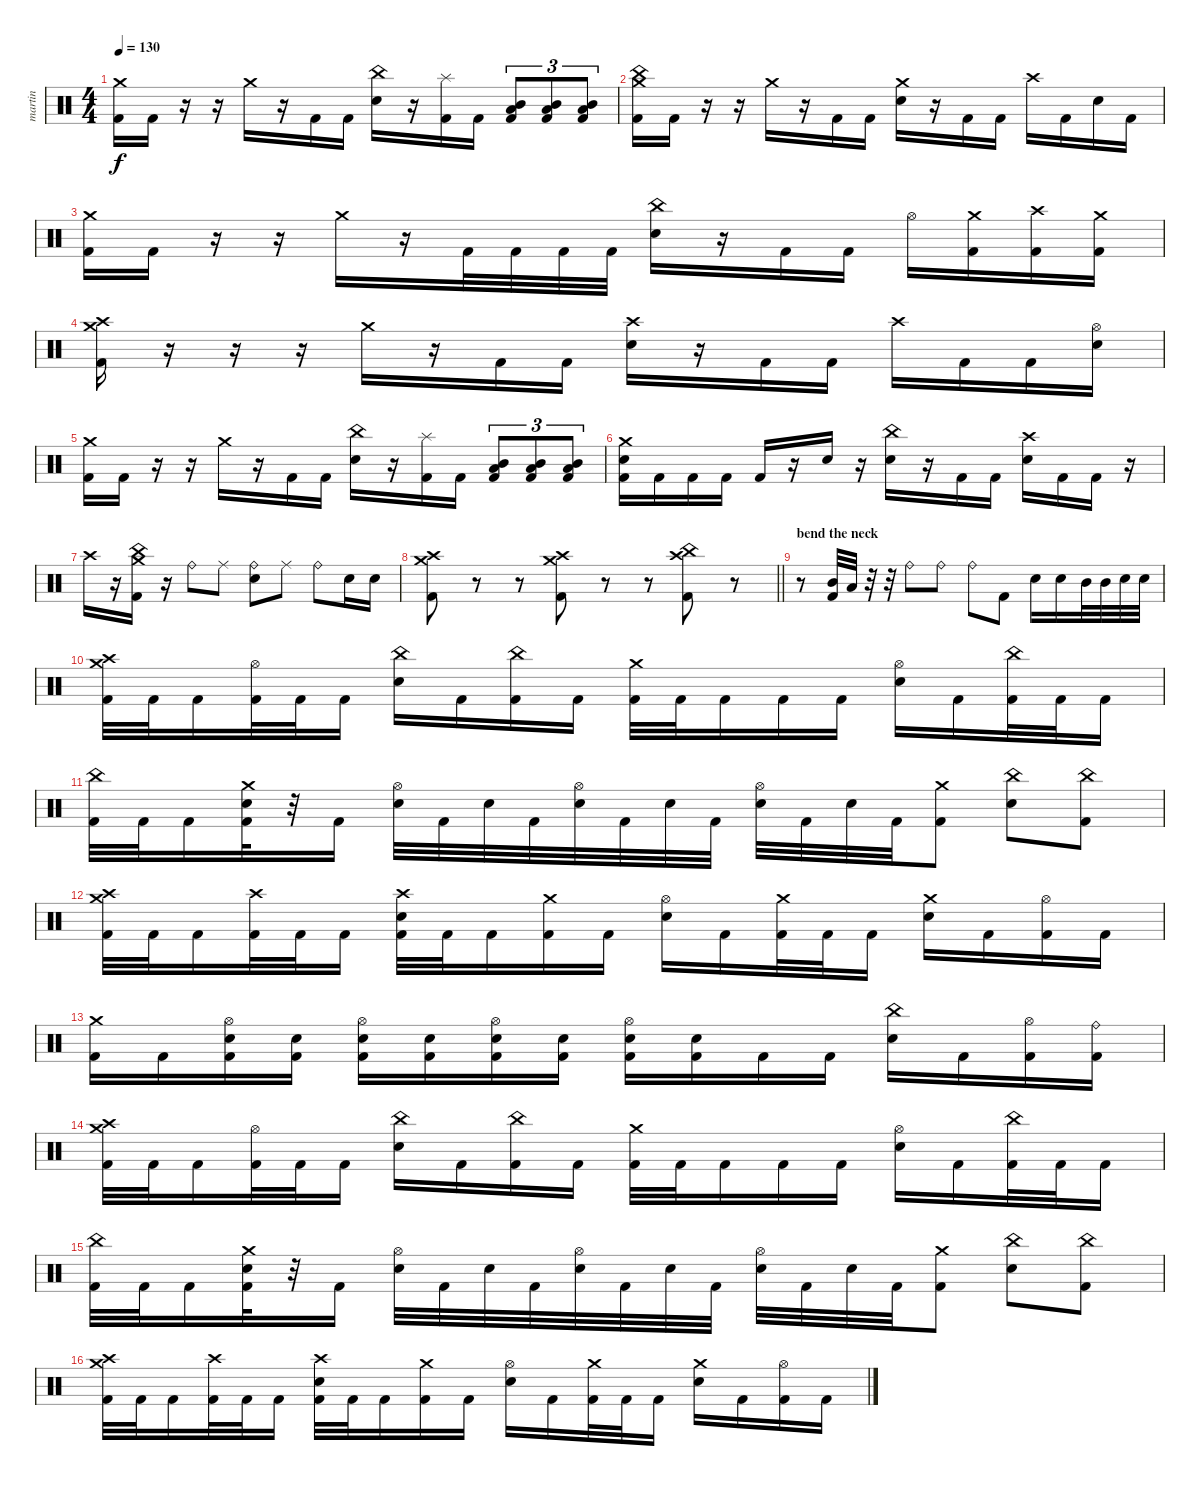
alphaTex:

\track ("martin" "martin") {instrument percussion}
\staff {score}
\articulation defaults
\ts (4 4)
\tempo 130
\clef neutral
\ks c
("Crash medium (hit)" "Kick (hit) 2").16{dy f} "Kick (hit) 2".16 r.16 r.16 "Crash medium (hit)".16 r.16 "Kick (hit) 2".16 "Kick (hit) 2".16 ("China (hit)" "Electric Snare (hit)").16 r.16 ("Splash (hit)" "Kick (hit) 2").16 "Kick (hit) 2".16 ("Low Floor Tom (hit)" "Mid Tom (hit)" "Kick (hit) 2").8{tu (3 2)} ("Low Floor Tom (hit)" "Mid Tom (hit)" "Kick (hit) 2").8{tu (3 2)} ("Low Floor Tom (hit)" "Mid Tom (hit)" "Kick (hit) 2").8{tu (3 2)} |
("Crash medium (hit)" "China (hit)" "Kick (hit) 2").16 "Kick (hit) 2".16 r.16 r.16 "Crash medium (hit)".16 r.16 "Kick (hit) 2".16 "Kick (hit) 2".16 ("Crash medium (hit)" "Electric Snare (hit)").16 r.16 "Kick (hit) 2".16 "Kick (hit) 2".16 "Crash high (hit)".16 "Kick (hit) 2".16 "Electric Snare (hit)".16 "Kick (hit) 2".16 |
("Crash medium (hit)" "Kick (hit) 2").16 "Kick (hit) 2".16 r.16 r.16 "Crash medium (hit)".16 r.16 "Kick (hit) 2".32 "Kick (hit) 2".32 "Kick (hit) 2".32 "Kick (hit) 2".32 ("China (hit)" "Electric Snare (hit)").16 r.16 "Kick (hit) 2".16 "Kick (hit) 2".16 "Hi-Hat (open)".16 ("Crash medium (hit)" "Kick (hit) 2").16 ("Crash high (hit)" "Kick (hit) 2").16 ("Crash medium (hit)" "Kick (hit) 2").16 |
("Crash medium (hit)" "Crash high (hit)" "Kick (hit) 2").16 r.16 r.16 r.16 "Crash medium (hit)".16 r.16 "Kick (hit) 2".16 "Kick (hit) 2".16 ("Crash high (hit)" "Electric Snare (hit)").16 r.16 "Kick (hit) 2".16 "Kick (hit) 2".16 "Crash high (hit)".16 "Kick (hit) 2".16 "Kick (hit) 2".16 ("Hi-Hat (open)" "Electric Snare (hit)").16 |
("Crash medium (hit)" "Kick (hit) 2").16 "Kick (hit) 2".16 r.16 r.16 "Crash medium (hit)".16 r.16 "Kick (hit) 2".16 "Kick (hit) 2".16 ("China (hit)" "Electric Snare (hit)").16 r.16 ("Splash (hit)" "Kick (hit) 2").16 "Kick (hit) 2".16 ("Low Floor Tom (hit)" "Mid Tom (hit)" "Kick (hit) 2").8{tu (3 2)} ("Low Floor Tom (hit)" "Mid Tom (hit)" "Kick (hit) 2").8{tu (3 2)} ("Low Floor Tom (hit)" "Mid Tom (hit)" "Kick (hit) 2").8{tu (3 2)} |
("Crash medium (hit)" "Electric Snare (hit)" "Kick (hit) 2").16 "Kick (hit) 2".16 "Kick (hit) 2".16 "Kick (hit) 2".16 "Kick (hit) 2".16 r.16 "Electric Snare (hit)".16 r.16 ("China (hit)" "Electric Snare (hit)").16 r.16 "Kick (hit) 2".16 "Kick (hit) 2".16 ("Crash high (hit)" "Electric Snare (hit)").16 "Kick (hit) 2".16 "Kick (hit) 2".16 r.16 |
"Crash high (hit)".16 r.16 ("China (hit)" "Crash medium (hit)" "Kick (hit) 2").16 r.16 "Ride (bell)".8 "Ride (middle)".8 ("Ride (bell)" "Electric Snare (hit)").8 "Ride (middle)".8 "Ride (bell)".8 "Electric Snare (hit)".16 "Electric Snare (hit)".16 |
\barLineRight lightlight
("Crash medium (hit)" "Crash high (hit)" "Kick (hit) 2").8 r.8 r.8 ("Crash medium (hit)" "Crash high (hit)" "Kick (hit) 2").8 r.8 r.8 ("Crash high (hit)" "China (hit)" "Kick (hit) 2").8 r.8 |
\section ("" "bend the neck")
r.8 ("Mid Tom (hit)" "Kick (hit) 2").32 "Low Tom (hit)".32 r.32 r.32 "Ride (bell)".8 "Ride (bell)".8 "Ride (bell)".8 "Kick (hit) 2".8 "Electric Snare (hit)".16 "Electric Snare (hit)".16 "Mid Tom (hit)".32 "Mid Tom (hit)".32 "Electric Snare (hit)".32 "Electric Snare (hit)".32 |
("Crash medium (hit)" "Crash high (hit)" "Kick (hit) 2").32 "Kick (hit) 2".32 "Kick (hit) 2".16 ("Hi-Hat (open)" "Kick (hit) 2").32 "Kick (hit) 2".32 "Kick (hit) 2".16 ("China (hit)" "Electric Snare (hit)").16 "Kick (hit) 2".16 ("China (hit)" "Kick (hit) 2").16 "Kick (hit) 2".16 ("Crash medium (hit)" "Kick (hit) 2").32 "Kick (hit) 2".32 "Kick (hit) 2".16 "Kick (hit) 2".16 "Kick (hit) 2".16 ("Hi-Hat (open)" "Electric Snare (hit)").16 "Kick (hit) 2".16 ("China (hit)" "Kick (hit) 2").32 "Kick (hit) 2".32 "Kick (hit) 2".16 |
("China (hit)" "Kick (hit) 2").32 "Kick (hit) 2".32 "Kick (hit) 2".16 ("Crash medium (hit)" "Electric Snare (hit)" "Kick (hit) 2").32 r.32 "Kick (hit) 2".16 ("Hi-Hat (open)" "Electric Snare (hit)").32 "Kick (hit) 2".32 "Electric Snare (hit)".32 "Kick (hit) 2".32 ("Hi-Hat (open)" "Electric Snare (hit)").32 "Kick (hit) 2".32 "Electric Snare (hit)".32 "Kick (hit) 2".32 ("Hi-Hat (open)" "Electric Snare (hit)").32 "Kick (hit) 2".32 "Electric Snare (hit)".32 "Kick (hit) 2".32 ("Crash medium (hit)" "Kick (hit) 2").8 ("China (hit)" "Electric Snare (hit)").8 ("China (hit)" "Kick (hit) 2").8 |
("Crash medium (hit)" "Crash high (hit)" "Kick (hit) 2").32 "Kick (hit) 2".32 "Kick (hit) 2".16 ("Crash high (hit)" "Kick (hit) 2").32 "Kick (hit) 2".32 "Kick (hit) 2".16 ("Crash high (hit)" "Electric Snare (hit)" "Kick (hit) 2").32 "Kick (hit) 2".32 "Kick (hit) 2".16 ("Crash medium (hit)" "Kick (hit) 2").16 "Kick (hit) 2".16 ("Hi-Hat (open)" "Electric Snare (hit)").16 "Kick (hit) 2".16 ("Crash medium (hit)" "Kick (hit) 2").32 "Kick (hit) 2".32 "Kick (hit) 2".16 ("Crash medium (hit)" "Electric Snare (hit)").16 "Kick (hit) 2".16 ("Hi-Hat (open)" "Kick (hit) 2").16 "Kick (hit) 2".16 |
("Crash medium (hit)" "Kick (hit) 2").16 "Kick (hit) 2".16 ("Hi-Hat (open)" "Electric Snare (hit)" "Kick (hit) 2").16 ("Electric Snare (hit)" "Kick (hit) 2").16 ("Hi-Hat (open)" "Electric Snare (hit)" "Kick (hit) 2").16 ("Electric Snare (hit)" "Kick (hit) 2").16 ("Hi-Hat (open)" "Electric Snare (hit)" "Kick (hit) 2").16 ("Electric Snare (hit)" "Kick (hit) 2").16 ("Hi-Hat (open)" "Electric Snare (hit)" "Kick (hit) 2").16 ("Electric Snare (hit)" "Kick (hit) 2").16 "Kick (hit) 2".16 "Kick (hit) 2".16 ("China (hit)" "Electric Snare (hit)").16 "Kick (hit) 2".16 ("Hi-Hat (open)" "Kick (hit) 2").16 ("Ride (bell)" "Kick (hit) 2").16 |
("Crash medium (hit)" "Crash high (hit)" "Kick (hit) 2").32 "Kick (hit) 2".32 "Kick (hit) 2".16 ("Hi-Hat (open)" "Kick (hit) 2").32 "Kick (hit) 2".32 "Kick (hit) 2".16 ("China (hit)" "Electric Snare (hit)").16 "Kick (hit) 2".16 ("China (hit)" "Kick (hit) 2").16 "Kick (hit) 2".16 ("Crash medium (hit)" "Kick (hit) 2").32 "Kick (hit) 2".32 "Kick (hit) 2".16 "Kick (hit) 2".16 "Kick (hit) 2".16 ("Hi-Hat (open)" "Electric Snare (hit)").16 "Kick (hit) 2".16 ("China (hit)" "Kick (hit) 2").32 "Kick (hit) 2".32 "Kick (hit) 2".16 |
("China (hit)" "Kick (hit) 2").32 "Kick (hit) 2".32 "Kick (hit) 2".16 ("Crash medium (hit)" "Electric Snare (hit)" "Kick (hit) 2").32 r.32 "Kick (hit) 2".16 ("Hi-Hat (open)" "Electric Snare (hit)").32 "Kick (hit) 2".32 "Electric Snare (hit)".32 "Kick (hit) 2".32 ("Hi-Hat (open)" "Electric Snare (hit)").32 "Kick (hit) 2".32 "Electric Snare (hit)".32 "Kick (hit) 2".32 ("Hi-Hat (open)" "Electric Snare (hit)").32 "Kick (hit) 2".32 "Electric Snare (hit)".32 "Kick (hit) 2".32 ("Crash medium (hit)" "Kick (hit) 2").8 ("China (hit)" "Electric Snare (hit)").8 ("China (hit)" "Kick (hit) 2").8 |
("Crash medium (hit)" "Crash high (hit)" "Kick (hit) 2").32 "Kick (hit) 2".32 "Kick (hit) 2".16 ("Crash high (hit)" "Kick (hit) 2").32 "Kick (hit) 2".32 "Kick (hit) 2".16 ("Crash high (hit)" "Electric Snare (hit)" "Kick (hit) 2").32 "Kick (hit) 2".32 "Kick (hit) 2".16 ("Crash medium (hit)" "Kick (hit) 2").16 "Kick (hit) 2".16 ("Hi-Hat (open)" "Electric Snare (hit)").16 "Kick (hit) 2".16 ("Crash medium (hit)" "Kick (hit) 2").32 "Kick (hit) 2".32 "Kick (hit) 2".16 ("Crash medium (hit)" "Electric Snare (hit)").16 "Kick (hit) 2".16 ("Hi-Hat (open)" "Kick (hit) 2").16 "Kick (hit) 2".16
